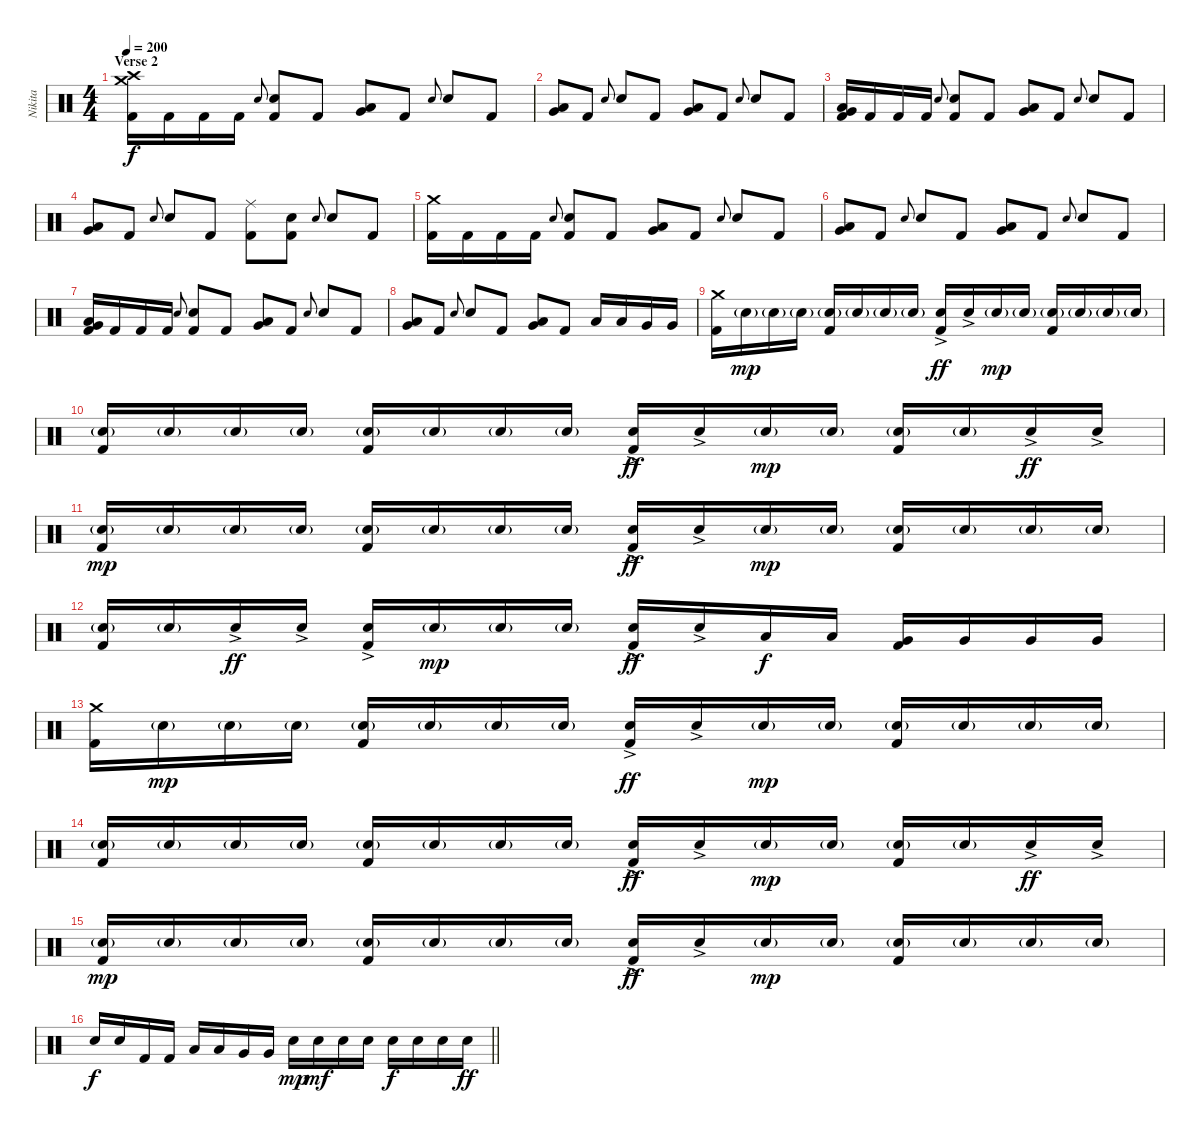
\track ("Nikita" "Nikita") {instrument percussion}
\staff {score}
\articulation defaults
\ts (4 4)
\section ("" "Verse 2")
\tempo 200
\clef neutral
\ks c
("Crash medium (hit)" "Crash high (hit)" "Kick (hit) 2").16{dy f} "Kick (hit) 2".16 "Kick (hit) 2".16 "Kick (hit) 2".16 "Electric Snare (hit)"{x}.8{gr onbeat} ("Electric Snare (hit)" "Kick (hit) 2").8 "Kick (hit) 2".8 ("Low Tom (hit)" "Very Low Tom (hit)").8 "Kick (hit) 2".8 "Electric Snare (hit)"{x}.8{gr onbeat} "Electric Snare (hit)".8 "Kick (hit) 2".8 |
("Low Tom (hit)" "Very Low Tom (hit)").8 "Kick (hit) 2".8 "Electric Snare (hit)"{x}.8{gr onbeat} "Electric Snare (hit)".8 "Kick (hit) 2".8 ("Very Low Tom (hit)" "Low Tom (hit)").8 "Kick (hit) 2".8 "Electric Snare (hit)"{x}.8{gr onbeat} "Electric Snare (hit)".8 "Kick (hit) 2".8 |
("Low Tom (hit)" "Very Low Tom (hit)" "Kick (hit) 2").16 "Kick (hit) 2".16 "Kick (hit) 2".16 "Kick (hit) 2".16 "Electric Snare (hit)"{x}.8{gr onbeat} ("Electric Snare (hit)" "Kick (hit) 2").8 "Kick (hit) 2".8 ("Low Tom (hit)" "Very Low Tom (hit)").8 "Kick (hit) 2".8 "Electric Snare (hit)"{x}.8{gr onbeat} "Electric Snare (hit)".8 "Kick (hit) 2".8 |
("Low Tom (hit)" "Very Low Tom (hit)").8 "Kick (hit) 2".8 "Electric Snare (hit)"{x}.8{gr onbeat} "Electric Snare (hit)".8 "Kick (hit) 2".8 ("Ride (middle)" "Kick (hit) 2").8 ("Metronome (bell)" "Kick (hit) 2").8 "Electric Snare (hit)"{x}.8{gr onbeat} "Electric Snare (hit)".8 "Kick (hit) 2".8 |
("Crash medium (hit)" "Kick (hit) 2").16 "Kick (hit) 2".16 "Kick (hit) 2".16 "Kick (hit) 2".16 "Electric Snare (hit)"{x}.8{gr onbeat} ("Electric Snare (hit)" "Kick (hit) 2").8 "Kick (hit) 2".8 ("Low Tom (hit)" "Very Low Tom (hit)").8 "Kick (hit) 2".8 "Electric Snare (hit)"{x}.8{gr onbeat} "Electric Snare (hit)".8 "Kick (hit) 2".8 |
("Low Tom (hit)" "Very Low Tom (hit)").8 "Kick (hit) 2".8 "Electric Snare (hit)"{x}.8{gr onbeat} "Electric Snare (hit)".8 "Kick (hit) 2".8 ("Low Tom (hit)" "Very Low Tom (hit)").8 "Kick (hit) 2".8 "Electric Snare (hit)"{x}.8{gr onbeat} "Electric Snare (hit)".8 "Kick (hit) 2".8 |
("Low Tom (hit)" "Very Low Tom (hit)" "Kick (hit) 2").16 "Kick (hit) 2".16 "Kick (hit) 2".16 "Kick (hit) 2".16 "Electric Snare (hit)"{x}.8{gr onbeat} ("Electric Snare (hit)" "Kick (hit) 2").8 "Kick (hit) 2".8 ("Low Tom (hit)" "Very Low Tom (hit)").8 "Kick (hit) 2".8 "Electric Snare (hit)"{x}.8{gr onbeat} "Electric Snare (hit)".8 "Kick (hit) 2".8 |
("Low Tom (hit)" "Very Low Tom (hit)").8 "Kick (hit) 2".8 "Electric Snare (hit)"{x}.8{gr onbeat} "Electric Snare (hit)".8 "Kick (hit) 2".8 ("Low Tom (hit)" "Very Low Tom (hit)").8 "Kick (hit) 2".8 "Low Tom (hit)".16 "Low Tom (hit)".16 "Very Low Tom (hit)".16 "Very Low Tom (hit)".16 |
("Crash medium (hit)" "Kick (hit) 2").16 "Electric Snare (hit)"{g}.16{dy mp} "Electric Snare (hit)"{g}.16 "Electric Snare (hit)"{g}.16 ("Electric Snare (hit)"{g} "Kick (hit) 2").16 "Electric Snare (hit)"{g}.16 "Electric Snare (hit)"{g}.16 "Electric Snare (hit)"{g}.16 ("Electric Snare (hit)"{ac} "Kick (hit) 2").16{dy ff} "Electric Snare (hit)"{ac}.16 "Electric Snare (hit)"{g}.16{dy mp} "Electric Snare (hit)"{g}.16 ("Electric Snare (hit)"{g} "Kick (hit) 2").16 "Electric Snare (hit)"{g}.16 "Electric Snare (hit)"{g}.16 "Electric Snare (hit)"{g}.16 |
("Electric Snare (hit)"{g} "Kick (hit) 2").16 "Electric Snare (hit)"{g}.16 "Electric Snare (hit)"{g}.16 "Electric Snare (hit)"{g}.16 ("Electric Snare (hit)"{g} "Kick (hit) 2").16 "Electric Snare (hit)"{g}.16 "Electric Snare (hit)"{g}.16 "Electric Snare (hit)"{g}.16 ("Electric Snare (hit)"{ac} "Kick (hit) 2").16{dy ff} "Electric Snare (hit)"{ac}.16 "Electric Snare (hit)"{g}.16{dy mp} "Electric Snare (hit)"{g}.16 ("Electric Snare (hit)"{g} "Kick (hit) 2").16 "Electric Snare (hit)"{g}.16 "Electric Snare (hit)"{ac}.16{dy ff} "Electric Snare (hit)"{ac}.16 |
("Electric Snare (hit)"{g} "Kick (hit) 2").16{dy mp} "Electric Snare (hit)"{g}.16 "Electric Snare (hit)"{g}.16 "Electric Snare (hit)"{g}.16 ("Electric Snare (hit)"{g} "Kick (hit) 2").16 "Electric Snare (hit)"{g}.16 "Electric Snare (hit)"{g}.16 "Electric Snare (hit)"{g}.16 ("Electric Snare (hit)"{ac} "Kick (hit) 2").16{dy ff} "Electric Snare (hit)"{ac}.16 "Electric Snare (hit)"{g}.16{dy mp} "Electric Snare (hit)"{g}.16 ("Electric Snare (hit)"{g} "Kick (hit) 2").16 "Electric Snare (hit)"{g}.16 "Electric Snare (hit)"{g}.16 "Electric Snare (hit)"{g}.16 |
("Electric Snare (hit)"{g} "Kick (hit) 2").16 "Electric Snare (hit)"{g}.16 "Electric Snare (hit)"{ac}.16{dy ff} "Electric Snare (hit)"{ac}.16 ("Electric Snare (hit)"{ac} "Kick (hit) 2").16 "Electric Snare (hit)"{g}.16{dy mp} "Electric Snare (hit)"{g}.16 "Electric Snare (hit)"{g}.16 ("Electric Snare (hit)"{ac} "Kick (hit) 2").16{dy ff} "Electric Snare (hit)"{ac}.16 "Low Tom (hit)".16{dy f} "Low Tom (hit)".16 ("Very Low Tom (hit)" "Kick (hit) 2").16 "Very Low Tom (hit)".16 "Very Low Tom (hit)".16 "Very Low Tom (hit)".16 |
("Crash medium (hit)" "Kick (hit) 2").16 "Electric Snare (hit)"{g}.16{dy mp} "Electric Snare (hit)"{g}.16 "Electric Snare (hit)"{g}.16 ("Electric Snare (hit)"{g} "Kick (hit) 2").16 "Electric Snare (hit)"{g}.16 "Electric Snare (hit)"{g}.16 "Electric Snare (hit)"{g}.16 ("Electric Snare (hit)"{ac} "Kick (hit) 2").16{dy ff} "Electric Snare (hit)"{ac}.16 "Electric Snare (hit)"{g}.16{dy mp} "Electric Snare (hit)"{g}.16 ("Electric Snare (hit)"{g} "Kick (hit) 2").16 "Electric Snare (hit)"{g}.16 "Electric Snare (hit)"{g}.16 "Electric Snare (hit)"{g}.16 |
("Electric Snare (hit)"{g} "Kick (hit) 2").16 "Electric Snare (hit)"{g}.16 "Electric Snare (hit)"{g}.16 "Electric Snare (hit)"{g}.16 ("Electric Snare (hit)"{g} "Kick (hit) 2").16 "Electric Snare (hit)"{g}.16 "Electric Snare (hit)"{g}.16 "Electric Snare (hit)"{g}.16 ("Electric Snare (hit)"{ac} "Kick (hit) 2").16{dy ff} "Electric Snare (hit)"{ac}.16 "Electric Snare (hit)"{g}.16{dy mp} "Electric Snare (hit)"{g}.16 ("Electric Snare (hit)"{g} "Kick (hit) 2").16 "Electric Snare (hit)"{g}.16 "Electric Snare (hit)"{ac}.16{dy ff} "Electric Snare (hit)"{ac}.16 |
("Electric Snare (hit)"{g} "Kick (hit) 2").16{dy mp} "Electric Snare (hit)"{g}.16 "Electric Snare (hit)"{g}.16 "Electric Snare (hit)"{g}.16 ("Electric Snare (hit)"{g} "Kick (hit) 2").16 "Electric Snare (hit)"{g}.16 "Electric Snare (hit)"{g}.16 "Electric Snare (hit)"{g}.16 ("Electric Snare (hit)"{ac} "Kick (hit) 2").16{dy ff} "Electric Snare (hit)"{ac}.16 "Electric Snare (hit)"{g}.16{dy mp} "Electric Snare (hit)"{g}.16 ("Electric Snare (hit)"{g} "Kick (hit) 2").16 "Electric Snare (hit)"{g}.16 "Electric Snare (hit)"{g}.16 "Electric Snare (hit)"{g}.16 |
\barLineRight lightlight "Electric Snare (hit)".16{dy f} "Electric Snare (hit)".16 "Kick (hit) 2".16 "Kick (hit) 2".16 "Low Tom (hit)".16 "Low Tom (hit)".16 "Very Low Tom (hit)".16 "Very Low Tom (hit)".16 "Electric Snare (hit)".16{dy mp} "Electric Snare (hit)".16{dy mf} "Electric Snare (hit)".16 "Electric Snare (hit)".16 "Electric Snare (hit)".16{dy f} "Electric Snare (hit)".16 "Electric Snare (hit)".16 "Electric Snare (hit)".16{dy ff}
